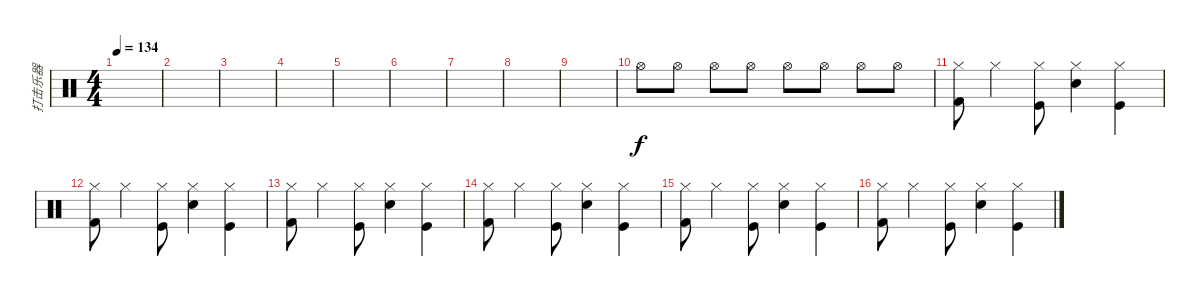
\track ("打击乐器" "打击乐器") {instrument percussion}
\staff {score}
\articulation defaults
\ts (4 4)
\tempo 134
\clef neutral
\ks c
|
|
|
|
|
|
|
|
|
"Hi-Hat (open)".8{volume 2} "Hi-Hat (open)".8 "Hi-Hat (open)".8{volume 3} "Hi-Hat (open)".8 "Hi-Hat (open)".8{volume 4} "Hi-Hat (open)".8 "Hi-Hat (open)".8{volume 5} "Hi-Hat (open)".8 |
("Kick (hit) 2" "Hi-Hat (closed)").8 "Hi-Hat (closed)".4 ("Hi-Hat (closed)" "Kick (hit)").8 ("Snare (hit) 2" "Hi-Hat (closed)").4 ("Kick (hit)" "Hi-Hat (closed)").4 |
("Kick (hit) 2" "Hi-Hat (closed)").8 "Hi-Hat (closed)".4 ("Hi-Hat (closed)" "Kick (hit)").8 ("Snare (hit) 2" "Hi-Hat (closed)").4 ("Kick (hit)" "Hi-Hat (closed)").4 |
("Kick (hit) 2" "Hi-Hat (closed)").8 "Hi-Hat (closed)".4 ("Hi-Hat (closed)" "Kick (hit)").8 ("Snare (hit) 2" "Hi-Hat (closed)").4 ("Kick (hit)" "Hi-Hat (closed)").4 |
("Kick (hit) 2" "Hi-Hat (closed)").8 "Hi-Hat (closed)".4 ("Hi-Hat (closed)" "Kick (hit)").8 ("Snare (hit) 2" "Hi-Hat (closed)").4 ("Kick (hit)" "Hi-Hat (closed)").4 |
("Kick (hit) 2" "Hi-Hat (closed)").8 "Hi-Hat (closed)".4 ("Hi-Hat (closed)" "Kick (hit)").8 ("Snare (hit) 2" "Hi-Hat (closed)").4 ("Kick (hit)" "Hi-Hat (closed)").4 |
("Kick (hit) 2" "Hi-Hat (closed)").8 "Hi-Hat (closed)".4 ("Hi-Hat (closed)" "Kick (hit)").8 ("Snare (hit) 2" "Hi-Hat (closed)").4 ("Kick (hit)" "Hi-Hat (closed)").4
